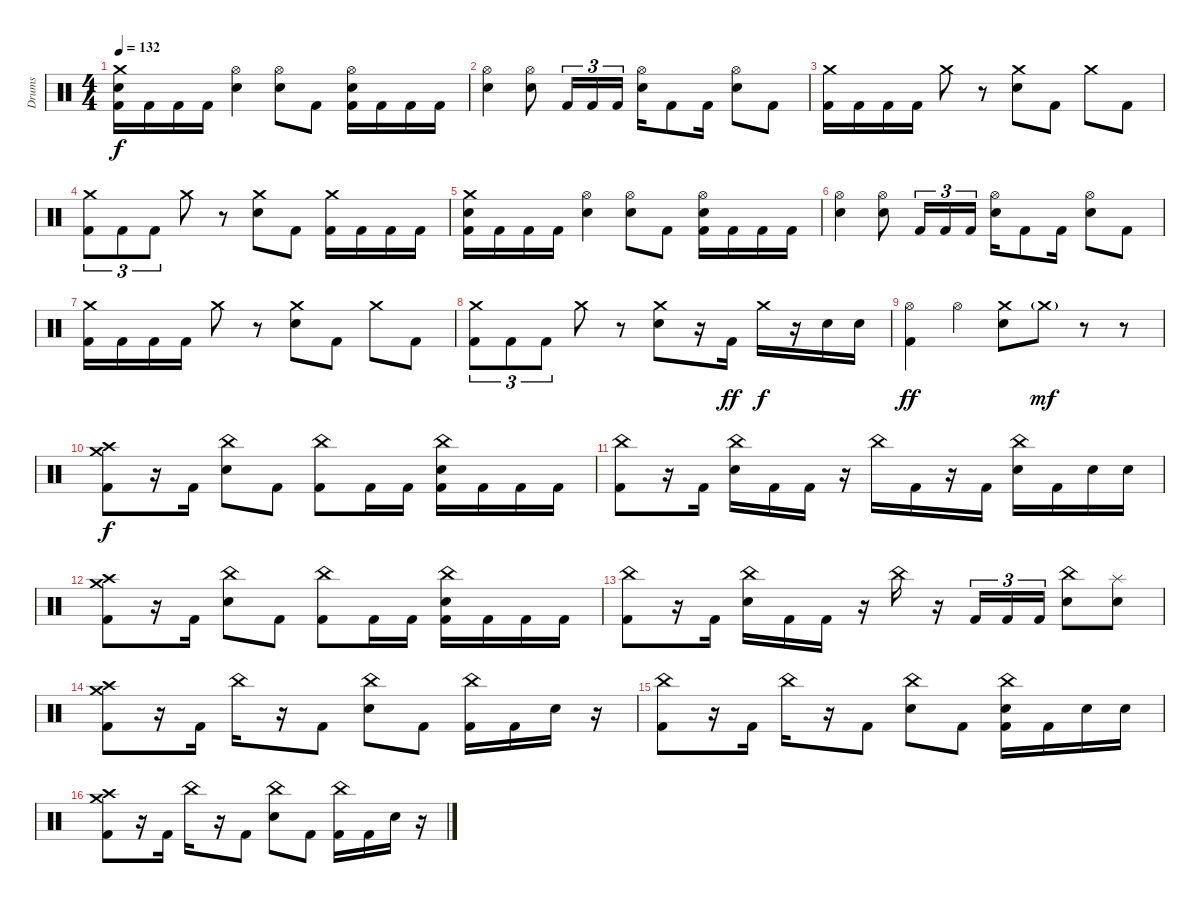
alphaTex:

\track ("Drums" "Drums") {instrument percussion}
\staff {score}
\articulation defaults
\ts (4 4)
\tempo 132
\clef neutral
\ks c
("Crash medium (hit)" "Electric Snare (hit)" "Kick (hit) 2").16{dy f} "Kick (hit) 2".16 "Kick (hit) 2".16 "Kick (hit) 2".16 ("Hi-Hat (open)" "Electric Snare (hit)").4 ("Hi-Hat (open)" "Electric Snare (hit)").8 "Kick (hit) 2".8 ("Hi-Hat (open)" "Electric Snare (hit)" "Kick (hit) 2").16 "Kick (hit) 2".16 "Kick (hit) 2".16 "Kick (hit) 2".16 |
("Hi-Hat (open)" "Electric Snare (hit)").4 ("Hi-Hat (open)" "Electric Snare (hit)").8 "Kick (hit) 2".16{tu (3 2)} "Kick (hit) 2".16{tu (3 2)} "Kick (hit) 2".16{tu (3 2)} ("Hi-Hat (open)" "Electric Snare (hit)").16 "Kick (hit) 2".8 "Kick (hit) 2".16 ("Hi-Hat (open)" "Electric Snare (hit)").8 "Kick (hit) 2".8 |
("Crash medium (hit)" "Kick (hit) 2").16 "Kick (hit) 2".16 "Kick (hit) 2".16 "Kick (hit) 2".16 "Crash medium (hit)".8 r.8 ("Crash medium (hit)" "Electric Snare (hit)").8 "Kick (hit) 2".8 "Crash medium (hit)".8 "Kick (hit) 2".8 |
("Crash medium (hit)" "Kick (hit) 2").8{tu (3 2)} "Kick (hit) 2".8{tu (3 2)} "Kick (hit) 2".8{tu (3 2)} "Crash medium (hit)".8 r.8 ("Crash medium (hit)" "Electric Snare (hit)").8 "Kick (hit) 2".8 ("Crash medium (hit)" "Kick (hit) 2").16 "Kick (hit) 2".16 "Kick (hit) 2".16 "Kick (hit) 2".16 |
("Crash medium (hit)" "Electric Snare (hit)" "Kick (hit) 2").16 "Kick (hit) 2".16 "Kick (hit) 2".16 "Kick (hit) 2".16 ("Hi-Hat (open)" "Electric Snare (hit)").4 ("Hi-Hat (open)" "Electric Snare (hit)").8 "Kick (hit) 2".8 ("Hi-Hat (open)" "Electric Snare (hit)" "Kick (hit) 2").16 "Kick (hit) 2".16 "Kick (hit) 2".16 "Kick (hit) 2".16 |
("Hi-Hat (open)" "Electric Snare (hit)").4 ("Hi-Hat (open)" "Electric Snare (hit)").8 "Kick (hit) 2".16{tu (3 2)} "Kick (hit) 2".16{tu (3 2)} "Kick (hit) 2".16{tu (3 2)} ("Hi-Hat (open)" "Electric Snare (hit)").16 "Kick (hit) 2".8 "Kick (hit) 2".16 ("Hi-Hat (open)" "Electric Snare (hit)").8 "Kick (hit) 2".8 |
("Crash medium (hit)" "Kick (hit) 2").16 "Kick (hit) 2".16 "Kick (hit) 2".16 "Kick (hit) 2".16 "Crash medium (hit)".8 r.8 ("Crash medium (hit)" "Electric Snare (hit)").8 "Kick (hit) 2".8 "Crash medium (hit)".8 "Kick (hit) 2".8 |
("Crash medium (hit)" "Kick (hit) 2").8{tu (3 2)} "Kick (hit) 2".8{tu (3 2)} "Kick (hit) 2".8{tu (3 2)} "Crash medium (hit)".8 r.8 ("Crash medium (hit)" "Electric Snare (hit)").8 r.16 "Kick (hit) 2".16{dy ff} "Crash medium (hit)".16{dy f} r.16 "Electric Snare (hit)".16 "Electric Snare (hit)".16 |
("Hi-Hat (open)" "Kick (hit) 2").4{dy ff} "Hi-Hat (open)".4 ("Crash medium (hit)" "Electric Snare (hit)").8 "Crash medium (hit)"{g}.8{dy mf} r.8 r.8 |
("Crash medium (hit)" "Crash high (hit)" "Kick (hit) 2").8{dy f} r.16 "Kick (hit) 2".16 ("China (hit)" "Electric Snare (hit)").8 "Kick (hit) 2".8 ("China (hit)" "Kick (hit) 2").8 "Kick (hit) 2".16 "Kick (hit) 2".16 ("China (hit)" "Electric Snare (hit)" "Kick (hit) 2").16 "Kick (hit) 2".16 "Kick (hit) 2".16 "Kick (hit) 2".16 |
("China (hit)" "Kick (hit) 2").8 r.16 "Kick (hit) 2".16 ("China (hit)" "Electric Snare (hit)").16 "Kick (hit) 2".16 "Kick (hit) 2".16 r.16 "China (hit)".16 "Kick (hit) 2".16 r.16 "Kick (hit) 2".16 ("China (hit)" "Electric Snare (hit)").16 "Kick (hit) 2".16 "Electric Snare (hit)".16 "Electric Snare (hit)".16 |
("Crash medium (hit)" "Crash high (hit)" "Kick (hit) 2").8 r.16 "Kick (hit) 2".16 ("China (hit)" "Electric Snare (hit)").8 "Kick (hit) 2".8 ("China (hit)" "Kick (hit) 2").8 "Kick (hit) 2".16 "Kick (hit) 2".16 ("China (hit)" "Electric Snare (hit)" "Kick (hit) 2").16 "Kick (hit) 2".16 "Kick (hit) 2".16 "Kick (hit) 2".16 |
("China (hit)" "Kick (hit) 2").8 r.16 "Kick (hit) 2".16 ("China (hit)" "Electric Snare (hit)").16 "Kick (hit) 2".16 "Kick (hit) 2".16 r.16 "China (hit)".16 r.16 "Kick (hit) 2".16{tu (3 2)} "Kick (hit) 2".16{tu (3 2)} "Kick (hit) 2".16{tu (3 2)} ("China (hit)" "Electric Snare (hit)").8 ("Splash (hit)" "Electric Snare (hit)").8 |
("Crash medium (hit)" "Crash high (hit)" "Kick (hit) 2").8 r.16 "Kick (hit) 2".16 "China (hit)".16 r.16 "Kick (hit) 2".8 ("China (hit)" "Electric Snare (hit)").8 "Kick (hit) 2".8 ("China (hit)" "Kick (hit) 2").16 "Kick (hit) 2".16 "Electric Snare (hit)".16 r.16 |
("China (hit)" "Kick (hit) 2").8 r.16 "Kick (hit) 2".16 "China (hit)".16 r.16 "Kick (hit) 2".8 ("China (hit)" "Electric Snare (hit)").8 "Kick (hit) 2".8 ("China (hit)" "Electric Snare (hit)" "Kick (hit) 2").16 "Kick (hit) 2".16 "Electric Snare (hit)".16 "Electric Snare (hit)".16 |
("Crash medium (hit)" "Crash high (hit)" "Kick (hit) 2").8 r.16 "Kick (hit) 2".16 "China (hit)".16 r.16 "Kick (hit) 2".8 ("China (hit)" "Electric Snare (hit)").8 "Kick (hit) 2".8 ("China (hit)" "Kick (hit) 2").16 "Kick (hit) 2".16 "Electric Snare (hit)".16 r.16
